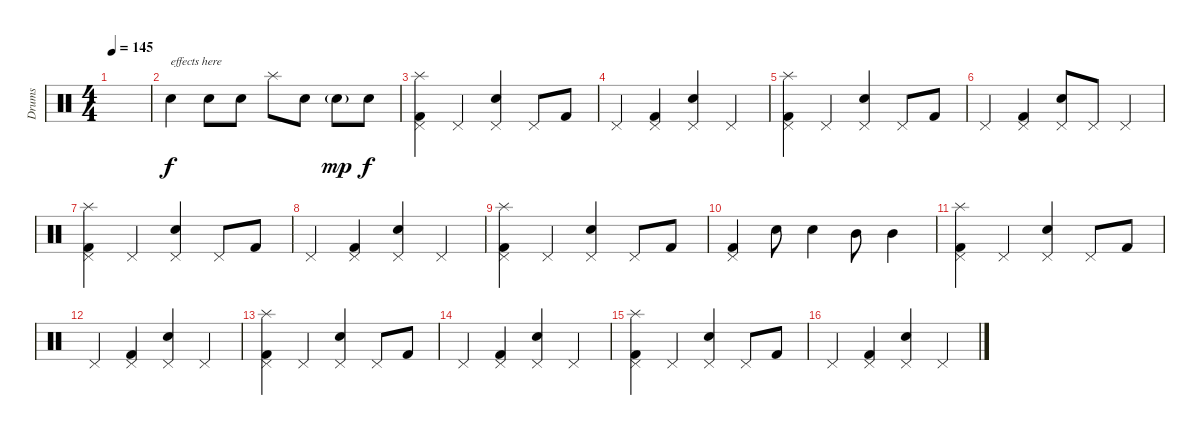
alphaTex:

\track ("Drums" "Drums") {instrument percussion}
\staff {score}
\articulation defaults
\ts (4 4)
\tempo 145
\clef neutral
\ks c
|
"Electric Snare (hit)".4{txt "effects here"} "Electric Snare (hit)".8 "Electric Snare (hit)".8 "Splash (hit)".8 "Electric Snare (hit)".8 "Electric Snare (hit)"{g}.8{dy mp} "Electric Snare (hit)".8{dy f} |
("Splash (hit)" "Pedal Hi-Hat (hit)" "Kick (hit) 2").4 "Pedal Hi-Hat (hit)".4 ("Pedal Hi-Hat (hit)" "Snare (hit) 2").4 "Pedal Hi-Hat (hit)".8 "Kick (hit) 2".8 |
"Pedal Hi-Hat (hit)".4 ("Pedal Hi-Hat (hit)" "Kick (hit) 2").4 ("Pedal Hi-Hat (hit)" "Snare (hit) 2").4 "Pedal Hi-Hat (hit)".4 |
("Splash (hit)" "Pedal Hi-Hat (hit)" "Kick (hit) 2").4 "Pedal Hi-Hat (hit)".4 ("Pedal Hi-Hat (hit)" "Snare (hit) 2").4 "Pedal Hi-Hat (hit)".8 "Kick (hit) 2".8 |
"Pedal Hi-Hat (hit)".4 ("Pedal Hi-Hat (hit)" "Kick (hit) 2").4 ("Pedal Hi-Hat (hit)" "Snare (hit) 2").8 "Pedal Hi-Hat (hit)".8 "Pedal Hi-Hat (hit)".4 |
("Splash (hit)" "Pedal Hi-Hat (hit)" "Kick (hit) 2").4 "Pedal Hi-Hat (hit)".4 ("Pedal Hi-Hat (hit)" "Snare (hit) 2").4 "Pedal Hi-Hat (hit)".8 "Kick (hit) 2".8 |
"Pedal Hi-Hat (hit)".4 ("Pedal Hi-Hat (hit)" "Kick (hit) 2").4 ("Pedal Hi-Hat (hit)" "Snare (hit) 2").4 "Pedal Hi-Hat (hit)".4 |
("Splash (hit)" "Pedal Hi-Hat (hit)" "Kick (hit) 2").4 "Pedal Hi-Hat (hit)".4 ("Pedal Hi-Hat (hit)" "Snare (hit) 2").4 "Pedal Hi-Hat (hit)".8 "Kick (hit) 2".8 |
("Pedal Hi-Hat (hit)" "Kick (hit) 2").4 "Snare (hit) 2".8 "Snare (hit) 2".4 "Mid Tom (hit)".8 "Mid Tom (hit)".4 |
("Splash (hit)" "Pedal Hi-Hat (hit)" "Kick (hit) 2").4 "Pedal Hi-Hat (hit)".4 ("Pedal Hi-Hat (hit)" "Snare (hit) 2").4 "Pedal Hi-Hat (hit)".8 "Kick (hit) 2".8 |
"Pedal Hi-Hat (hit)".4 ("Pedal Hi-Hat (hit)" "Kick (hit) 2").4 ("Pedal Hi-Hat (hit)" "Snare (hit) 2").4 "Pedal Hi-Hat (hit)".4 |
("Splash (hit)" "Pedal Hi-Hat (hit)" "Kick (hit) 2").4 "Pedal Hi-Hat (hit)".4 ("Pedal Hi-Hat (hit)" "Snare (hit) 2").4 "Pedal Hi-Hat (hit)".8 "Kick (hit) 2".8 |
"Pedal Hi-Hat (hit)".4 ("Pedal Hi-Hat (hit)" "Kick (hit) 2").4 ("Pedal Hi-Hat (hit)" "Snare (hit) 2").4 "Pedal Hi-Hat (hit)".4 |
("Splash (hit)" "Pedal Hi-Hat (hit)" "Kick (hit) 2").4 "Pedal Hi-Hat (hit)".4 ("Pedal Hi-Hat (hit)" "Snare (hit) 2").4 "Pedal Hi-Hat (hit)".8 "Kick (hit) 2".8 |
"Pedal Hi-Hat (hit)".4 ("Pedal Hi-Hat (hit)" "Kick (hit) 2").4 ("Pedal Hi-Hat (hit)" "Snare (hit) 2").4 "Pedal Hi-Hat (hit)".4
